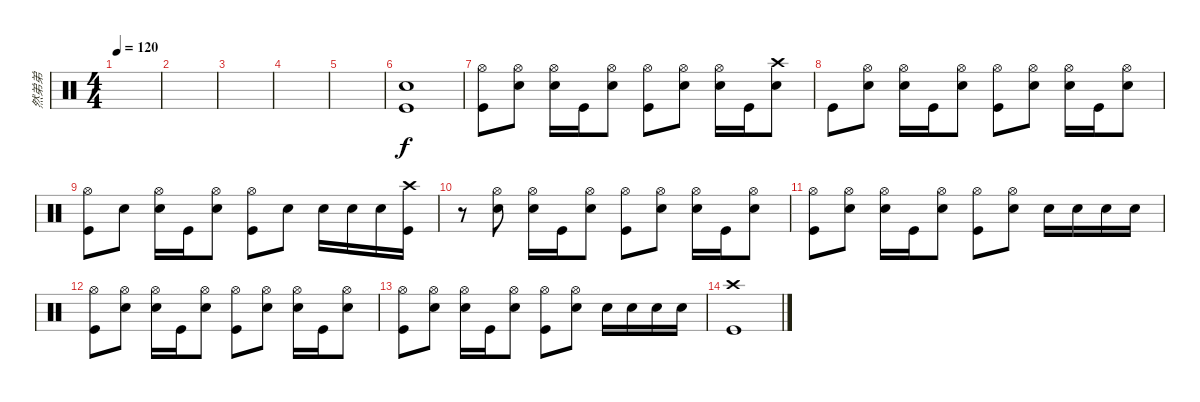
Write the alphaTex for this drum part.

\track ("然弟弟" "然弟弟") {instrument percussion}
\staff {score}
\articulation defaults
\ts (4 4)
\tempo 120
\clef neutral
\ks c
|
|
|
|
|
("Electric Snare (hit)" "Kick (hit)").1 |
("Hi-Hat (open)" "Kick (hit)").8 ("Hi-Hat (open)" "Electric Snare (hit)").8 ("Hi-Hat (open)" "Snare (hit)").16 "Kick (hit)".16 ("Hi-Hat (open)" "Electric Snare (hit)").8 ("Hi-Hat (open)" "Kick (hit)").8 ("Hi-Hat (open)" "Electric Snare (hit)").8 ("Hi-Hat (open)" "Snare (hit)").16 "Kick (hit)".16 ("Crash high (hit)" "Electric Snare (hit)").8 |
"Kick (hit)".8 ("Hi-Hat (open)" "Electric Snare (hit)").8 ("Hi-Hat (open)" "Snare (hit)").16 "Kick (hit)".16 ("Hi-Hat (open)" "Electric Snare (hit)").8 ("Hi-Hat (open)" "Kick (hit)").8 ("Hi-Hat (open)" "Electric Snare (hit)").8 ("Hi-Hat (open)" "Snare (hit)").16 "Kick (hit)".16 ("Hi-Hat (open)" "Electric Snare (hit)").8 |
("Hi-Hat (open)" "Kick (hit)").8 "Electric Snare (hit)".8 ("Hi-Hat (open)" "Snare (hit)").16 "Kick (hit)".16 ("Hi-Hat (open)" "Electric Snare (hit)").8 ("Hi-Hat (open)" "Kick (hit)").8 "Electric Snare (hit)".8 "Electric Snare (hit)".16 "Electric Snare (hit)".16 "Electric Snare (hit)".16 ("Crash high (hit)" "Kick (hit)").16 |
r.8 ("Hi-Hat (open)" "Electric Snare (hit)").8 ("Hi-Hat (open)" "Snare (hit)").16 "Kick (hit)".16 ("Hi-Hat (open)" "Electric Snare (hit)").8 ("Hi-Hat (open)" "Kick (hit)").8 ("Hi-Hat (open)" "Electric Snare (hit)").8 ("Hi-Hat (open)" "Snare (hit)").16 "Kick (hit)".16 ("Hi-Hat (open)" "Electric Snare (hit)").8 |
("Hi-Hat (open)" "Kick (hit)").8 ("Hi-Hat (open)" "Electric Snare (hit)").8 ("Hi-Hat (open)" "Snare (hit)").16 "Kick (hit)".16 ("Hi-Hat (open)" "Electric Snare (hit)").8 ("Hi-Hat (open)" "Kick (hit)").8 ("Hi-Hat (open)" "Electric Snare (hit)").8 "Electric Snare (hit)".16 "Electric Snare (hit)".16 "Electric Snare (hit)".16 "Electric Snare (hit)".16 |
("Hi-Hat (open)" "Kick (hit)").8 ("Hi-Hat (open)" "Electric Snare (hit)").8 ("Hi-Hat (open)" "Snare (hit)").16 "Kick (hit)".16 ("Hi-Hat (open)" "Electric Snare (hit)").8 ("Hi-Hat (open)" "Kick (hit)").8 ("Hi-Hat (open)" "Electric Snare (hit)").8 ("Hi-Hat (open)" "Snare (hit)").16 "Kick (hit)".16 ("Hi-Hat (open)" "Electric Snare (hit)").8 |
("Hi-Hat (open)" "Kick (hit)").8 ("Hi-Hat (open)" "Electric Snare (hit)").8 ("Hi-Hat (open)" "Snare (hit)").16 "Kick (hit)".16 ("Hi-Hat (open)" "Electric Snare (hit)").8 ("Hi-Hat (open)" "Kick (hit)").8 ("Hi-Hat (open)" "Electric Snare (hit)").8 "Electric Snare (hit)".16 "Electric Snare (hit)".16 "Electric Snare (hit)".16 "Electric Snare (hit)".16 |
("Crash high (hit)" "Kick (hit)").1
